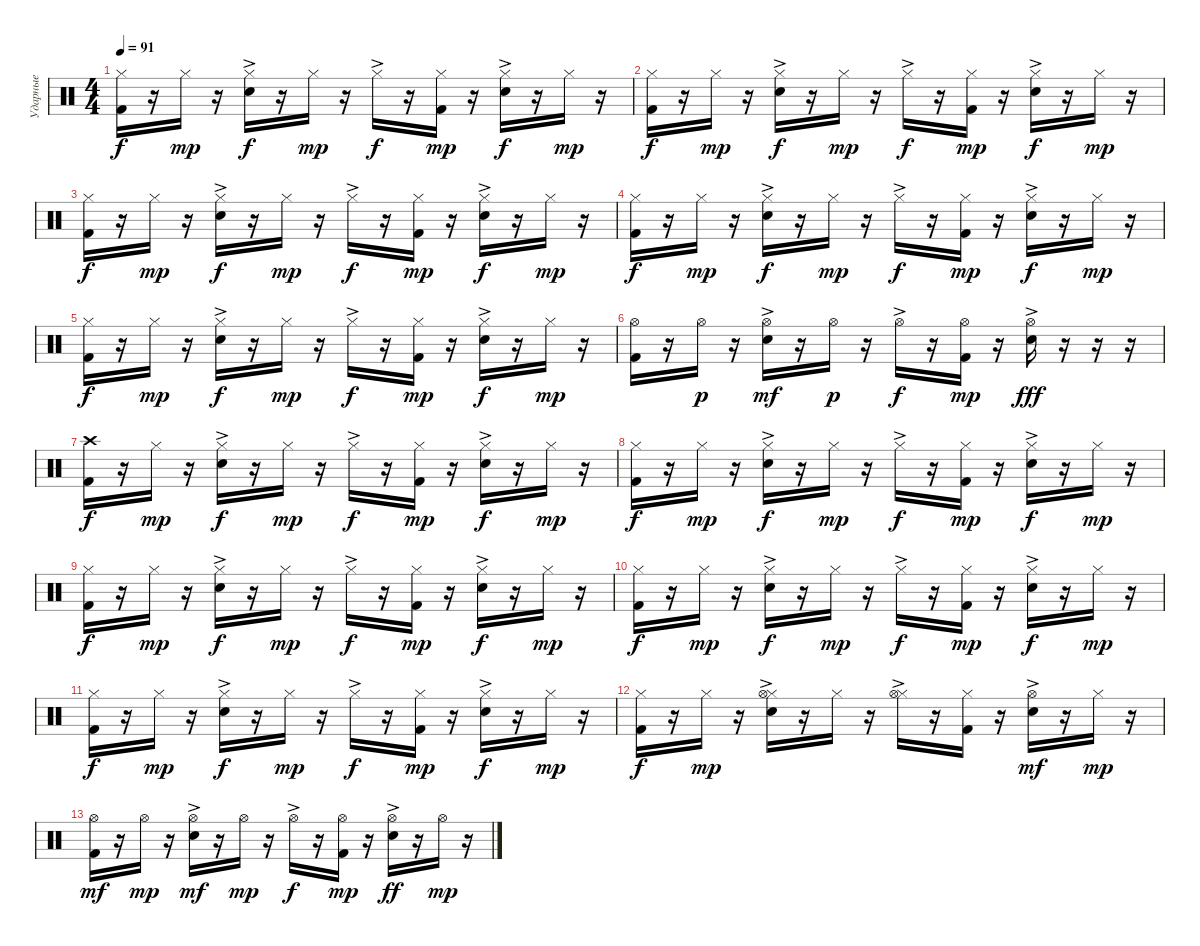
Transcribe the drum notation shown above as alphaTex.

\track ("Ударные" "Ударные") {instrument percussion}
\staff {score}
\articulation defaults
\ts (4 4)
\tempo 91
\clef neutral
\ks c
("Hi-Hat (closed)" "Kick (hit) 2").16{dy f} r.16 "Hi-Hat (closed)".16{dy mp} r.16 ("Hi-Hat (closed)"{ac} "Snare (hit) 2").16{dy f} r.16 "Hi-Hat (closed)".16{dy mp} r.16 "Hi-Hat (closed)"{ac}.16{dy f} r.16 ("Hi-Hat (closed)" "Kick (hit) 2").16{dy mp} r.16 ("Hi-Hat (closed)"{ac} "Snare (hit) 2").16{dy f} r.16 "Hi-Hat (closed)".16{dy mp} r.16 |
("Hi-Hat (closed)" "Kick (hit) 2").16{dy f} r.16 "Hi-Hat (closed)".16{dy mp} r.16 ("Hi-Hat (closed)"{ac} "Snare (hit) 2").16{dy f} r.16 "Hi-Hat (closed)".16{dy mp} r.16 "Hi-Hat (closed)"{ac}.16{dy f} r.16 ("Hi-Hat (closed)" "Kick (hit) 2").16{dy mp} r.16 ("Hi-Hat (closed)"{ac} "Snare (hit) 2").16{dy f} r.16 "Hi-Hat (closed)".16{dy mp} r.16 |
("Hi-Hat (closed)" "Kick (hit) 2").16{dy f} r.16 "Hi-Hat (closed)".16{dy mp} r.16 ("Hi-Hat (closed)"{ac} "Snare (hit) 2").16{dy f} r.16 "Hi-Hat (closed)".16{dy mp} r.16 "Hi-Hat (closed)"{ac}.16{dy f} r.16 ("Hi-Hat (closed)" "Kick (hit) 2").16{dy mp} r.16 ("Hi-Hat (closed)"{ac} "Snare (hit) 2").16{dy f} r.16 "Hi-Hat (closed)".16{dy mp} r.16 |
("Hi-Hat (closed)" "Kick (hit) 2").16{dy f} r.16 "Hi-Hat (closed)".16{dy mp} r.16 ("Hi-Hat (closed)"{ac} "Snare (hit) 2").16{dy f} r.16 "Hi-Hat (closed)".16{dy mp} r.16 "Hi-Hat (closed)"{ac}.16{dy f} r.16 ("Hi-Hat (closed)" "Kick (hit) 2").16{dy mp} r.16 ("Hi-Hat (closed)"{ac} "Snare (hit) 2").16{dy f} r.16 "Hi-Hat (closed)".16{dy mp} r.16 |
("Hi-Hat (closed)" "Kick (hit) 2").16{dy f} r.16 "Hi-Hat (closed)".16{dy mp} r.16 ("Hi-Hat (closed)"{ac} "Snare (hit) 2").16{dy f} r.16 "Hi-Hat (closed)".16{dy mp} r.16 "Hi-Hat (closed)"{ac}.16{dy f} r.16 ("Hi-Hat (closed)" "Kick (hit) 2").16{dy mp} r.16 ("Hi-Hat (closed)"{ac} "Snare (hit) 2").16{dy f} r.16 "Hi-Hat (closed)".16{dy mp} r.16 |
("Hi-Hat (open)" "Kick (hit) 2").16 r.16 "Hi-Hat (open)".16{dy p} r.16 ("Hi-Hat (open)"{ac} "Snare (hit) 2").16{dy mf} r.16 "Hi-Hat (open)".16{dy p} r.16 "Hi-Hat (open)"{ac}.16{dy f} r.16 ("Hi-Hat (open)" "Kick (hit) 2").16{dy mp} r.16 ("Hi-Hat (open)"{ac} "Snare (hit) 2").16{dy fff} r.16 r.16 r.16 |
("Crash high (hit)" "Kick (hit) 2").16{dy f} r.16 "Hi-Hat (closed)".16{dy mp} r.16 ("Hi-Hat (closed)"{ac} "Snare (hit) 2").16{dy f} r.16 "Hi-Hat (closed)".16{dy mp} r.16 "Hi-Hat (closed)"{ac}.16{dy f} r.16 ("Hi-Hat (closed)" "Kick (hit) 2").16{dy mp} r.16 ("Hi-Hat (closed)"{ac} "Snare (hit) 2").16{dy f} r.16 "Hi-Hat (closed)".16{dy mp} r.16 |
("Hi-Hat (closed)" "Kick (hit) 2").16{dy f} r.16 "Hi-Hat (closed)".16{dy mp} r.16 ("Hi-Hat (closed)"{ac} "Snare (hit) 2").16{dy f} r.16 "Hi-Hat (closed)".16{dy mp} r.16 "Hi-Hat (closed)"{ac}.16{dy f} r.16 ("Hi-Hat (closed)" "Kick (hit) 2").16{dy mp} r.16 ("Hi-Hat (closed)"{ac} "Snare (hit) 2").16{dy f} r.16 "Hi-Hat (closed)".16{dy mp} r.16 |
("Hi-Hat (closed)" "Kick (hit) 2").16{dy f} r.16 "Hi-Hat (closed)".16{dy mp} r.16 ("Hi-Hat (closed)"{ac} "Snare (hit) 2").16{dy f} r.16 "Hi-Hat (closed)".16{dy mp} r.16 "Hi-Hat (closed)"{ac}.16{dy f} r.16 ("Hi-Hat (closed)" "Kick (hit) 2").16{dy mp} r.16 ("Hi-Hat (closed)"{ac} "Snare (hit) 2").16{dy f} r.16 "Hi-Hat (closed)".16{dy mp} r.16 |
("Hi-Hat (closed)" "Kick (hit) 2").16{dy f} r.16 "Hi-Hat (closed)".16{dy mp} r.16 ("Hi-Hat (closed)"{ac} "Snare (hit) 2").16{dy f} r.16 "Hi-Hat (closed)".16{dy mp} r.16 "Hi-Hat (closed)"{ac}.16{dy f} r.16 ("Hi-Hat (closed)" "Kick (hit) 2").16{dy mp} r.16 ("Hi-Hat (closed)"{ac} "Snare (hit) 2").16{dy f} r.16 "Hi-Hat (closed)".16{dy mp} r.16 |
("Hi-Hat (closed)" "Kick (hit) 2").16{dy f} r.16 "Hi-Hat (closed)".16{dy mp} r.16 ("Hi-Hat (closed)"{ac} "Snare (hit) 2").16{dy f} r.16 "Hi-Hat (closed)".16{dy mp} r.16 "Hi-Hat (closed)"{ac}.16{dy f} r.16 ("Hi-Hat (closed)" "Kick (hit) 2").16{dy mp} r.16 ("Hi-Hat (closed)"{ac} "Snare (hit) 2").16{dy f} r.16 "Hi-Hat (closed)".16{dy mp} r.16 |
("Hi-Hat (closed)" "Kick (hit) 2").16{dy f} r.16 "Hi-Hat (closed)".16{dy mp} r.16 ("Hi-Hat (closed)" "Hi-Hat (open)"{ac} "Snare (hit) 2").16 r.16 "Hi-Hat (closed)".16 r.16 ("Hi-Hat (closed)" "Hi-Hat (open)"{ac}).16 r.16 ("Hi-Hat (closed)" "Kick (hit) 2").16 r.16 ("Hi-Hat (open)"{ac} "Snare (hit) 2").16{dy mf} r.16 "Hi-Hat (closed)".16{dy mp} r.16 |
("Hi-Hat (open)" "Kick (hit) 2").16{dy mf} r.16 "Hi-Hat (open)".16{dy mp} r.16 ("Hi-Hat (open)"{ac} "Snare (hit) 2").16{dy mf} r.16 "Hi-Hat (open)".16{dy mp} r.16 "Hi-Hat (open)"{ac}.16{dy f} r.16 ("Hi-Hat (open)" "Kick (hit) 2").16{dy mp} r.16 ("Hi-Hat (open)"{ac} "Snare (hit) 2").16{dy ff} r.16 "Hi-Hat (open)".16{dy mp} r.16
